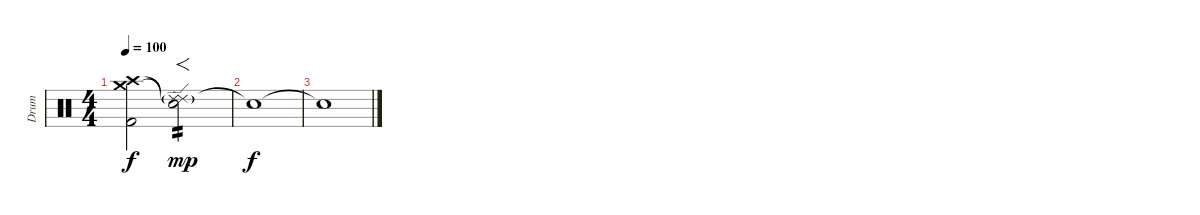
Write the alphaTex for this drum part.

\track ("Drum" "Drum") {instrument percussion}
\staff {score}
\articulation defaults
\ts (4 4)
\tempo 100
\clef neutral
\ks c
("Kick (hit) 2" "Crash high (hit)" "Crash medium (hit)").2{dy f} ("Ride (edge) 2"{g} "Snare (hit)"{t} "Ride (edge) 2"{t}).2{f tp 2 dy mp} |
"Snare (hit)"{t}.1{dy f volume 0} |
"Snare (hit)"{t}.1
